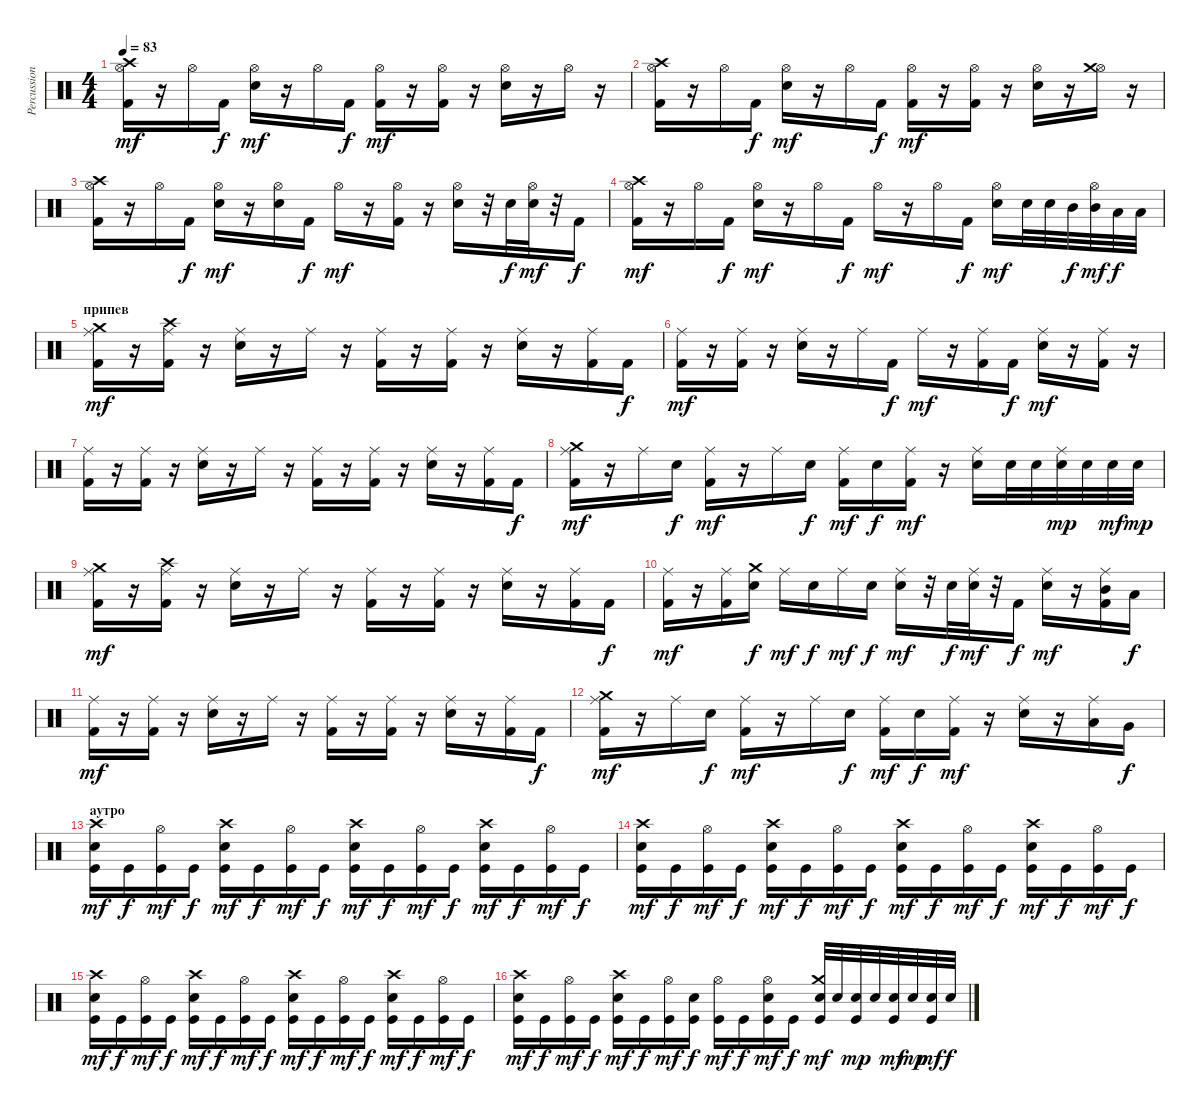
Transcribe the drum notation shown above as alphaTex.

\track ("Percussion" "Percussion") {instrument percussion}
\staff {score}
\articulation defaults
\ts (4 4)
\tempo 83
\clef neutral
\ks c
("Hi-Hat (open)" "Crash high (hit)" "Kick (hit) 2").16{dy mf} r.16 "Hi-Hat (open)".16 "Kick (hit) 2".16{dy f} ("Hi-Hat (open)" "Electric Snare (hit)").16{dy mf} r.16 "Hi-Hat (open)".16 "Kick (hit) 2".16{dy f} ("Hi-Hat (open)" "Kick (hit) 2").16{dy mf} r.16 ("Hi-Hat (open)" "Kick (hit) 2").16 r.16 ("Hi-Hat (open)" "Electric Snare (hit)").16 r.16 "Hi-Hat (open)".16 r.16 |
("Hi-Hat (open)" "Crash high (hit)" "Kick (hit) 2").16 r.16 "Hi-Hat (open)".16 "Kick (hit) 2".16{dy f} ("Hi-Hat (open)" "Electric Snare (hit)").16{dy mf} r.16 "Hi-Hat (open)".16 "Kick (hit) 2".16{dy f} ("Hi-Hat (open)" "Kick (hit) 2").16{dy mf} r.16 ("Hi-Hat (open)" "Kick (hit) 2").16 r.16 ("Hi-Hat (open)" "Electric Snare (hit)").16 r.16 ("Hi-Hat (open)" "Crash medium (hit)").16 r.16 |
("Hi-Hat (open)" "Crash high (hit)" "Kick (hit) 2").16 r.16 "Hi-Hat (open)".16 "Kick (hit) 2".16{dy f} ("Hi-Hat (open)" "Electric Snare (hit)").16{dy mf} r.16 ("Hi-Hat (open)" "Electric Snare (hit)").16 "Kick (hit) 2".16{dy f} "Hi-Hat (open)".16{dy mf} r.16 ("Hi-Hat (open)" "Kick (hit) 2").16 r.16 ("Hi-Hat (open)" "Electric Snare (hit)").16 r.32 "Electric Snare (hit)".32{dy f} ("Hi-Hat (open)" "Electric Snare (hit)").32{dy mf} r.32 "Kick (hit) 2".16{dy f} |
("Hi-Hat (open)" "Crash high (hit)" "Kick (hit) 2").16{dy mf} r.16 "Hi-Hat (open)".16 "Kick (hit) 2".16{dy f} ("Hi-Hat (open)" "Electric Snare (hit)").16{dy mf} r.16 "Hi-Hat (open)".16 "Kick (hit) 2".16{dy f} "Hi-Hat (open)".16{dy mf} r.16 "Hi-Hat (open)".16 "Kick (hit) 2".16{dy f} ("Hi-Hat (open)" "Electric Snare (hit)").16{dy mf} "Electric Snare (hit)".32 "Electric Snare (hit)".32 "Mid Tom (hit)".32{dy f} ("Hi-Hat (open)" "Mid Tom (hit)").32{dy mf} "Low Tom (hit)".32{dy f} "Low Tom (hit)".32 |
\section ("" "припев")
("Ride (middle)" "Crash medium (hit)" "Kick (hit) 2").16{dy mf} r.16 ("Ride (middle)" "Crash high (hit)" "Kick (hit) 2").16 r.16 ("Ride (middle)" "Electric Snare (hit)").16 r.16 "Ride (middle)".16 r.16 ("Ride (middle)" "Kick (hit) 2").16 r.16 ("Ride (middle)" "Kick (hit) 2").16 r.16 ("Ride (middle)" "Electric Snare (hit)").16 r.16 ("Ride (middle)" "Kick (hit) 2").16 "Kick (hit) 2".16{dy f} |
("Ride (middle)" "Kick (hit) 2").16{dy mf} r.16 ("Ride (middle)" "Kick (hit) 2").16 r.16 ("Ride (middle)" "Electric Snare (hit)").16 r.16 "Ride (middle)".16 "Kick (hit) 2".16{dy f} "Ride (middle)".16{dy mf} r.16 ("Ride (middle)" "Kick (hit) 2").16 "Kick (hit) 2".16{dy f} ("Ride (middle)" "Electric Snare (hit)").16{dy mf} r.16 ("Ride (middle)" "Kick (hit) 2").16 r.16 |
("Ride (middle)" "Kick (hit) 2").16 r.16 ("Ride (middle)" "Kick (hit) 2").16 r.16 ("Ride (middle)" "Electric Snare (hit)").16 r.16 "Ride (middle)".16 r.16 ("Ride (middle)" "Kick (hit) 2").16 r.16 ("Ride (middle)" "Kick (hit) 2").16 r.16 ("Ride (middle)" "Electric Snare (hit)").16 r.16 ("Ride (middle)" "Kick (hit) 2").16 "Kick (hit) 2".16{dy f} |
("Ride (middle)" "Crash medium (hit)" "Kick (hit) 2").16{dy mf} r.16 "Ride (middle)".16 "Electric Snare (hit)".16{dy f} ("Ride (middle)" "Kick (hit) 2").16{dy mf} r.16 "Ride (middle)".16 "Electric Snare (hit)".16{dy f} ("Ride (middle)" "Kick (hit) 2").16{dy mf} "Electric Snare (hit)".16{dy f} ("Ride (middle)" "Kick (hit) 2").16{dy mf} r.16 ("Ride (middle)" "Electric Snare (hit)").16 "Electric Snare (hit)".32 "Electric Snare (hit)".32 ("Ride (middle)" "Electric Snare (hit)").32{dy mp} "Electric Snare (hit)".32 "Electric Snare (hit)".32{dy mf} "Electric Snare (hit)".32{dy mp} |
("Ride (middle)" "Crash medium (hit)" "Kick (hit) 2").16{dy mf} r.16 ("Ride (middle)" "Crash high (hit)" "Kick (hit) 2").16 r.16 ("Ride (middle)" "Electric Snare (hit)").16 r.16 "Ride (middle)".16 r.16 ("Ride (middle)" "Kick (hit) 2").16 r.16 ("Ride (middle)" "Kick (hit) 2").16 r.16 ("Ride (middle)" "Electric Snare (hit)").16 r.16 ("Ride (middle)" "Kick (hit) 2").16 "Kick (hit) 2".16{dy f} |
("Ride (middle)" "Kick (hit) 2").16{dy mf} r.16 ("Ride (middle)" "Kick (hit) 2").16 ("Crash medium (hit)" "Electric Snare (hit)").16{dy f} "Ride (middle)".16{dy mf} "Electric Snare (hit)".16{dy f} "Ride (middle)".16{dy mf} "Electric Snare (hit)".16{dy f} ("Ride (middle)" "Electric Snare (hit)").16{dy mf} r.32 "Electric Snare (hit)".32{dy f} ("Ride (middle)" "Electric Snare (hit)").32{dy mf} r.32 "Kick (hit) 2".16{dy f} ("Ride (middle)" "Electric Snare (hit)").16{dy mf} r.16 ("Ride (middle)" "Mid Tom (hit)" "Kick (hit) 2").16 "Low Tom (hit)".16{dy f} |
("Ride (middle)" "Kick (hit) 2").16{dy mf} r.16 ("Ride (middle)" "Kick (hit) 2").16 r.16 ("Ride (middle)" "Electric Snare (hit)").16 r.16 "Ride (middle)".16 r.16 ("Ride (middle)" "Kick (hit) 2").16 r.16 ("Ride (middle)" "Kick (hit) 2").16 r.16 ("Ride (middle)" "Electric Snare (hit)").16 r.16 ("Ride (middle)" "Kick (hit) 2").16 "Kick (hit) 2".16{dy f} |
("Ride (middle)" "Crash medium (hit)" "Kick (hit) 2").16{dy mf} r.16 "Ride (middle)".16 "Electric Snare (hit)".16{dy f} ("Ride (middle)" "Kick (hit) 2").16{dy mf} r.16 "Ride (middle)".16 "Electric Snare (hit)".16{dy f} ("Ride (middle)" "Kick (hit) 2").16{dy mf} "Electric Snare (hit)".16{dy f} ("Ride (middle)" "Kick (hit) 2").16{dy mf} r.16 ("Ride (middle)" "Electric Snare (hit)").16 r.16 ("Ride (middle)" "Low Tom (hit)").16 "Very Low Tom (hit)".16{dy f} |
\section ("" "аутро")
("Crash high (hit)" "Electric Snare (hit)" "Kick (hit)").16{dy mf} "Kick (hit)".16{dy f} ("Hi-Hat (open)" "Kick (hit)").16{dy mf} "Kick (hit)".16{dy f} ("Crash high (hit)" "Electric Snare (hit)" "Kick (hit)").16{dy mf} "Kick (hit)".16{dy f} ("Hi-Hat (open)" "Kick (hit)").16{dy mf} "Kick (hit)".16{dy f} ("Crash high (hit)" "Electric Snare (hit)" "Kick (hit)").16{dy mf} "Kick (hit)".16{dy f} ("Hi-Hat (open)" "Kick (hit)").16{dy mf} "Kick (hit)".16{dy f} ("Crash high (hit)" "Electric Snare (hit)" "Kick (hit)").16{dy mf} "Kick (hit)".16{dy f} ("Hi-Hat (open)" "Kick (hit)").16{dy mf} "Kick (hit)".16{dy f} |
("Crash high (hit)" "Electric Snare (hit)" "Kick (hit)").16{dy mf} "Kick (hit)".16{dy f} ("Hi-Hat (open)" "Kick (hit)").16{dy mf} "Kick (hit)".16{dy f} ("Crash high (hit)" "Electric Snare (hit)" "Kick (hit)").16{dy mf} "Kick (hit)".16{dy f} ("Hi-Hat (open)" "Kick (hit)").16{dy mf} "Kick (hit)".16{dy f} ("Crash high (hit)" "Electric Snare (hit)" "Kick (hit)").16{dy mf} "Kick (hit)".16{dy f} ("Hi-Hat (open)" "Kick (hit)").16{dy mf} "Kick (hit)".16{dy f} ("Crash high (hit)" "Electric Snare (hit)" "Kick (hit)").16{dy mf} "Kick (hit)".16{dy f} ("Hi-Hat (open)" "Kick (hit)").16{dy mf} "Kick (hit)".16{dy f} |
("Crash high (hit)" "Electric Snare (hit)" "Kick (hit)").16{dy mf} "Kick (hit)".16{dy f} ("Hi-Hat (open)" "Kick (hit)").16{dy mf} "Kick (hit)".16{dy f} ("Crash high (hit)" "Electric Snare (hit)" "Kick (hit)").16{dy mf} "Kick (hit)".16{dy f} ("Hi-Hat (open)" "Kick (hit)").16{dy mf} "Kick (hit)".16{dy f} ("Crash high (hit)" "Electric Snare (hit)" "Kick (hit)").16{dy mf} "Kick (hit)".16{dy f} ("Hi-Hat (open)" "Kick (hit)").16{dy mf} "Kick (hit)".16{dy f} ("Crash high (hit)" "Electric Snare (hit)" "Kick (hit)").16{dy mf} "Kick (hit)".16{dy f} ("Hi-Hat (open)" "Kick (hit)").16{dy mf} "Kick (hit)".16{dy f} |
("Crash high (hit)" "Electric Snare (hit)" "Kick (hit)").16{dy mf} "Kick (hit)".16{dy f} ("Hi-Hat (open)" "Kick (hit)").16{dy mf} "Kick (hit)".16{dy f} ("Crash high (hit)" "Electric Snare (hit)" "Kick (hit)").16{dy mf} "Kick (hit)".16{dy f} ("Hi-Hat (open)" "Kick (hit)").16{dy mf} ("Electric Snare (hit)" "Kick (hit)").16{dy f} ("Hi-Hat (open)" "Kick (hit)").16{dy mf} "Kick (hit)".16{dy f} ("Hi-Hat (open)" "Electric Snare (hit)" "Kick (hit)").16{dy mf} "Kick (hit)".16{dy f} ("Crash medium (hit)" "Electric Snare (hit)" "Kick (hit)").32{dy mf} "Electric Snare (hit)".32 ("Electric Snare (hit)" "Kick (hit)").32{dy mp} "Electric Snare (hit)".32 ("Electric Snare (hit)" "Kick (hit)").32{dy mf} "Electric Snare (hit)".32{dy mp} ("Electric Snare (hit)" "Kick (hit)").32{dy mf} "Electric Snare (hit)".32{dy f}
